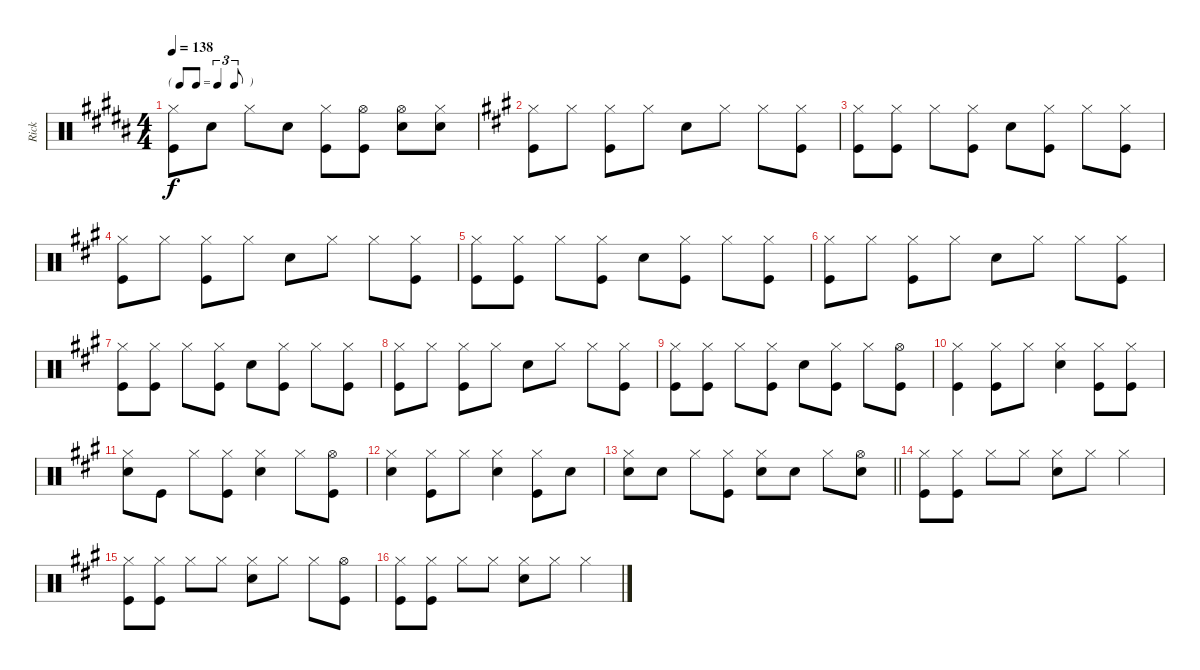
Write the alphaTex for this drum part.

\track ("Rick" "Rick") {instrument percussion}
\staff {score}
\articulation defaults
\ts (4 4)
\tf triplet8th
\tempo 138
\clef neutral
\ks b
("Hi-Hat (closed)" "Kick (hit)").8{dy f} "Snare (hit) 2".8 "Hi-Hat (closed)".8 "Snare (hit) 2".8 ("Hi-Hat (closed)" "Kick (hit)").8 ("Hi-Hat (open)" "Kick (hit)").8 ("Hi-Hat (open)" "Snare (hit) 2").8 ("Hi-Hat (closed)" "Snare (hit) 2").8 |
\ks a
("Hi-Hat (closed)" "Kick (hit)").8 "Hi-Hat (closed)".8 ("Hi-Hat (closed)" "Kick (hit)").8 "Hi-Hat (closed)".8 "Snare (hit) 2".8 "Hi-Hat (closed)".8 "Hi-Hat (closed)".8 ("Hi-Hat (closed)" "Kick (hit)").8 |
("Hi-Hat (closed)" "Kick (hit)").8 ("Hi-Hat (closed)" "Kick (hit)").8 "Hi-Hat (closed)".8 ("Hi-Hat (closed)" "Kick (hit)").8 "Snare (hit) 2".8 ("Hi-Hat (closed)" "Kick (hit)").8 "Hi-Hat (closed)".8 ("Hi-Hat (closed)" "Kick (hit)").8 |
("Hi-Hat (closed)" "Kick (hit)").8 "Hi-Hat (closed)".8 ("Hi-Hat (closed)" "Kick (hit)").8 "Hi-Hat (closed)".8 "Snare (hit) 2".8 "Hi-Hat (closed)".8 "Hi-Hat (closed)".8 ("Hi-Hat (closed)" "Kick (hit)").8 |
("Hi-Hat (closed)" "Kick (hit)").8 ("Hi-Hat (closed)" "Kick (hit)").8 "Hi-Hat (closed)".8 ("Hi-Hat (closed)" "Kick (hit)").8 "Snare (hit) 2".8 ("Hi-Hat (closed)" "Kick (hit)").8 "Hi-Hat (closed)".8 ("Hi-Hat (closed)" "Kick (hit)").8 |
("Hi-Hat (closed)" "Kick (hit)").8 "Hi-Hat (closed)".8 ("Hi-Hat (closed)" "Kick (hit)").8 "Hi-Hat (closed)".8 "Snare (hit) 2".8 "Hi-Hat (closed)".8 "Hi-Hat (closed)".8 ("Hi-Hat (closed)" "Kick (hit)").8 |
("Hi-Hat (closed)" "Kick (hit)").8 ("Hi-Hat (closed)" "Kick (hit)").8 "Hi-Hat (closed)".8 ("Hi-Hat (closed)" "Kick (hit)").8 "Snare (hit) 2".8 ("Hi-Hat (closed)" "Kick (hit)").8 "Hi-Hat (closed)".8 ("Hi-Hat (closed)" "Kick (hit)").8 |
("Hi-Hat (closed)" "Kick (hit)").8 "Hi-Hat (closed)".8 ("Hi-Hat (closed)" "Kick (hit)").8 "Hi-Hat (closed)".8 "Snare (hit) 2".8 "Hi-Hat (closed)".8 "Hi-Hat (closed)".8 ("Hi-Hat (closed)" "Kick (hit)").8 |
("Hi-Hat (closed)" "Kick (hit)").8 ("Hi-Hat (closed)" "Kick (hit)").8 "Hi-Hat (closed)".8 ("Hi-Hat (closed)" "Kick (hit)").8 "Snare (hit) 2".8 ("Hi-Hat (closed)" "Kick (hit)").8 "Hi-Hat (closed)".8 ("Hi-Hat (open)" "Kick (hit)").8 |
("Hi-Hat (closed)" "Kick (hit)").4 ("Hi-Hat (closed)" "Kick (hit)").8 "Hi-Hat (closed)".8 ("Hi-Hat (closed)" "Snare (hit) 2").4 ("Hi-Hat (closed)" "Kick (hit)").8 ("Hi-Hat (closed)" "Kick (hit)").8 |
("Hi-Hat (closed)" "Snare (hit) 2").8 "Kick (hit)".8 "Hi-Hat (closed)".8 ("Hi-Hat (closed)" "Kick (hit)").8 ("Hi-Hat (closed)" "Snare (hit) 2").4 "Hi-Hat (closed)".8 ("Hi-Hat (open)" "Kick (hit)").8 |
("Hi-Hat (closed)" "Snare (hit) 2").4 ("Hi-Hat (closed)" "Kick (hit)").8 "Hi-Hat (closed)".8 ("Hi-Hat (closed)" "Snare (hit) 2").4 ("Hi-Hat (closed)" "Kick (hit)").8 "Snare (hit) 2".8 |
\barLineRight lightlight
("Hi-Hat (closed)" "Snare (hit) 2").8 "Snare (hit) 2".8 "Hi-Hat (closed)".8 ("Hi-Hat (closed)" "Kick (hit)").8 ("Hi-Hat (closed)" "Snare (hit) 2").8 "Snare (hit) 2".8 "Hi-Hat (closed)".8 ("Hi-Hat (open)" "Snare (hit) 2").8 |
("Hi-Hat (closed)" "Kick (hit)").8 ("Hi-Hat (closed)" "Kick (hit)").8 "Hi-Hat (closed)".8 "Hi-Hat (closed)".8 ("Hi-Hat (closed)" "Snare (hit) 2").8 "Hi-Hat (closed)".8 "Hi-Hat (closed)".4 |
("Hi-Hat (closed)" "Kick (hit)").8 ("Hi-Hat (closed)" "Kick (hit)").8 "Hi-Hat (closed)".8 "Hi-Hat (closed)".8 ("Hi-Hat (closed)" "Snare (hit) 2").8 "Hi-Hat (closed)".8 "Hi-Hat (closed)".8 ("Hi-Hat (open)" "Kick (hit)").8 |
("Hi-Hat (closed)" "Kick (hit)").8 ("Hi-Hat (closed)" "Kick (hit)").8 "Hi-Hat (closed)".8 "Hi-Hat (closed)".8 ("Hi-Hat (closed)" "Snare (hit) 2").8 "Hi-Hat (closed)".8 "Hi-Hat (closed)".4
